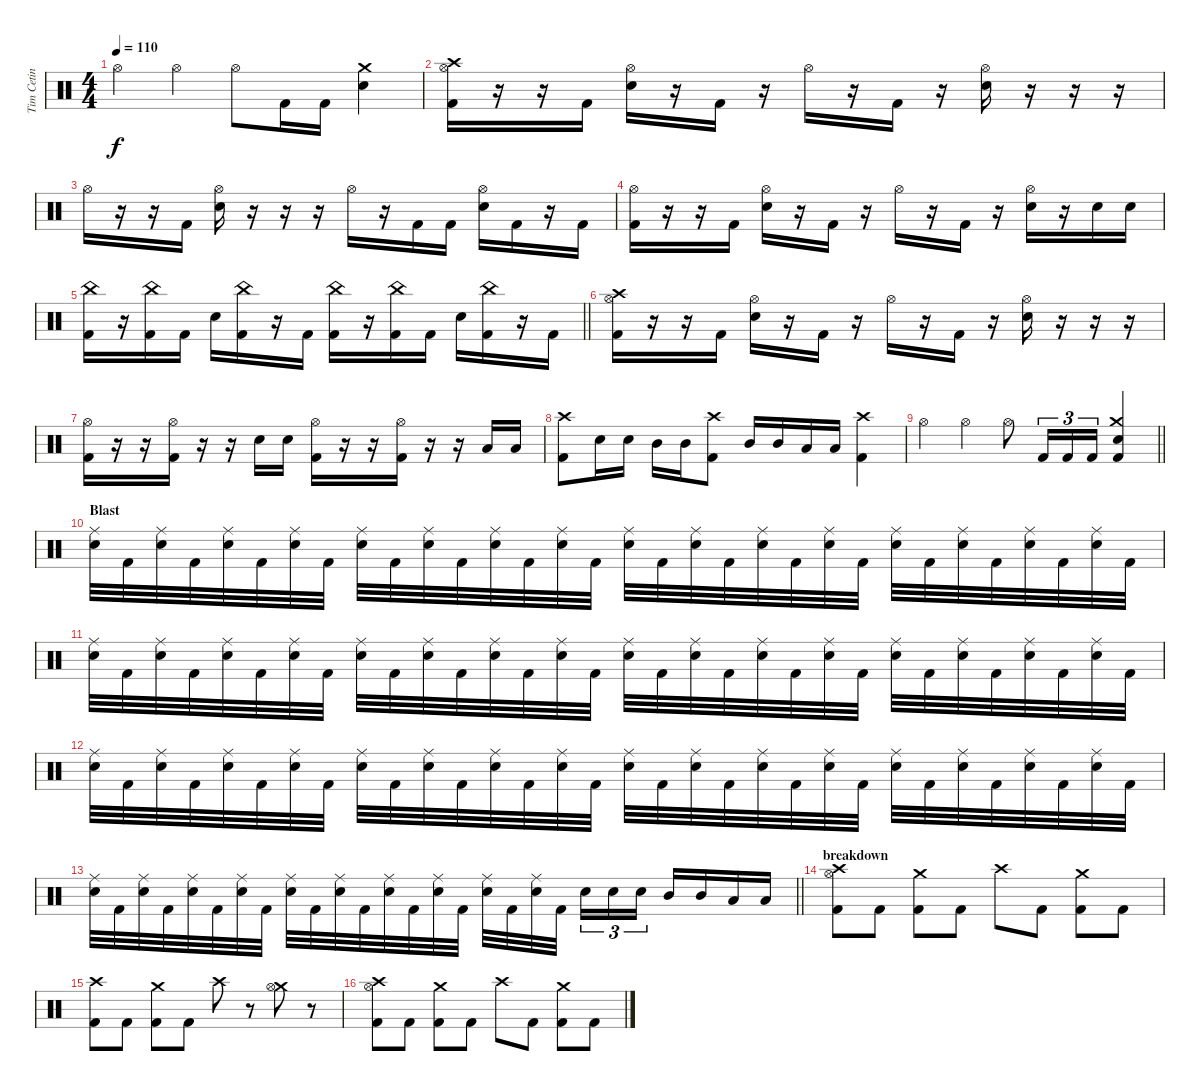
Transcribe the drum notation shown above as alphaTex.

\track ("Tim Cetin" "Tim Cetin") {instrument percussion}
\staff {score}
\articulation defaults
\ts (4 4)
\tempo 110
\clef neutral
\ks c "Hi-Hat (open)".4{dy f} "Hi-Hat (open)".4 "Hi-Hat (open)".8 "Kick (hit) 2".16 "Kick (hit) 2".16
("Crash medium (hit)" "Snare (hit) 2").4 |
("Crash high (hit)" "Hi-Hat (open)" "Kick (hit) 2").16 r.16 r.16 "Kick (hit) 2".16 ("Hi-Hat (open)" "Snare (hit) 2").16 r.16 "Kick (hit) 2".16 r.16 "Hi-Hat (open)".16 r.16 "Kick (hit) 2".16 r.16 ("Hi-Hat (open)" "Snare (hit) 2").16 r.16 r.16 r.16 |
"Hi-Hat (open)".16 r.16 r.16 "Kick (hit) 2".16 ("Hi-Hat (open)" "Snare (hit) 2").16 r.16 r.16 r.16 "Hi-Hat (open)".16 r.16 "Kick (hit) 2".16 "Kick (hit) 2".16 ("Hi-Hat (open)" "Snare (hit) 2").16 "Kick (hit) 2".16 r.16 "Kick (hit) 2".16 |
("Hi-Hat (open)" "Kick (hit) 2").16 r.16 r.16 "Kick (hit) 2".16 ("Hi-Hat (open)" "Snare (hit) 2").16 r.16 "Kick (hit) 2".16 r.16 "Hi-Hat (open)".16 r.16 "Kick (hit) 2".16 r.16 ("Hi-Hat (open)" "Snare (hit) 2").16 r.16 "Snare (hit) 2".16 "Snare (hit) 2".16 |
\barLineRight lightlight
("China (hit)" "Kick (hit) 2").16 r.16 ("China (hit)" "Kick (hit) 2").16 "Kick (hit) 2".16 "Snare (hit) 2".16 ("China (hit)" "Kick (hit) 2").16 r.16 "Kick (hit) 2".16 ("China (hit)" "Kick (hit) 2").16 r.16 ("China (hit)" "Kick (hit) 2").16 "Kick (hit) 2".16 "Snare (hit) 2".16 ("China (hit)" "Kick (hit) 2").16 r.16 "Kick (hit) 2".16 |
("Crash high (hit)" "Hi-Hat (open)" "Kick (hit) 2").16 r.16 r.16 "Kick (hit) 2".16 ("Hi-Hat (open)" "Snare (hit) 2").16 r.16 "Kick (hit) 2".16 r.16 "Hi-Hat (open)".16 r.16 "Kick (hit) 2".16 r.16 ("Hi-Hat (open)" "Snare (hit) 2").16 r.16 r.16 r.16 |
("Hi-Hat (open)" "Kick (hit) 2").16 r.16 r.16 ("Hi-Hat (open)" "Kick (hit) 2").16 r.16 r.16 "Snare (hit) 2".16 "Snare (hit) 2".16 ("Hi-Hat (open)" "Kick (hit) 2").16 r.16 r.16 ("Hi-Hat (open)" "Kick (hit) 2").16 r.16 r.16 "Low Tom (hit)".16 "Low Tom (hit)".16 |
("Crash high (hit)" "Kick (hit) 2").8 "Snare (hit) 2".16 "Snare (hit) 2".16 "Mid Tom (hit)".16 "Mid Tom (hit)".16 ("Crash high (hit)" "Kick (hit) 2").8 "Mid Tom (hit)".16 "Mid Tom (hit)".16 "Low Tom (hit)".16 "Low Tom (hit)".16 ("Crash high (hit)" "Kick (hit) 2").4 |
\barLineRight lightlight "Hi-Hat (open)".4 "Hi-Hat (open)".4 "Hi-Hat (open)".8 "Kick (hit) 2".16{tu (3 2)} "Kick (hit) 2".16{tu (3 2)} "Kick (hit) 2".16{tu (3 2)}
("Crash medium (hit)" "Snare (hit) 2" "Kick (hit) 2").4 |
\section ("" "Blast")
("Ride (middle)" "Snare (hit) 2").32 "Kick (hit) 2".32 ("Ride (middle)" "Snare (hit) 2").32 "Kick (hit) 2".32 ("Ride (middle)" "Snare (hit) 2").32 "Kick (hit) 2".32 ("Ride (middle)" "Snare (hit) 2").32 "Kick (hit) 2".32 ("Ride (middle)" "Snare (hit) 2").32 "Kick (hit) 2".32 ("Ride (middle)" "Snare (hit) 2").32 "Kick (hit) 2".32 ("Ride (middle)" "Snare (hit) 2").32 "Kick (hit) 2".32 ("Ride (middle)" "Snare (hit) 2").32 "Kick (hit) 2".32 ("Ride (middle)" "Snare (hit) 2").32 "Kick (hit) 2".32 ("Ride (middle)" "Snare (hit) 2").32 "Kick (hit) 2".32 ("Ride (middle)" "Snare (hit) 2").32 "Kick (hit) 2".32 ("Ride (middle)" "Snare (hit) 2").32 "Kick (hit) 2".32 ("Ride (middle)" "Snare (hit) 2").32 "Kick (hit) 2".32 ("Ride (middle)" "Snare (hit) 2").32 "Kick (hit) 2".32 ("Ride (middle)" "Snare (hit) 2").32 "Kick (hit) 2".32 ("Ride (middle)" "Snare (hit) 2").32 "Kick (hit) 2".32 |
("Ride (middle)" "Snare (hit) 2").32 "Kick (hit) 2".32 ("Ride (middle)" "Snare (hit) 2").32 "Kick (hit) 2".32 ("Ride (middle)" "Snare (hit) 2").32 "Kick (hit) 2".32 ("Ride (middle)" "Snare (hit) 2").32 "Kick (hit) 2".32 ("Ride (middle)" "Snare (hit) 2").32 "Kick (hit) 2".32 ("Ride (middle)" "Snare (hit) 2").32 "Kick (hit) 2".32 ("Ride (middle)" "Snare (hit) 2").32 "Kick (hit) 2".32 ("Ride (middle)" "Snare (hit) 2").32 "Kick (hit) 2".32 ("Ride (middle)" "Snare (hit) 2").32 "Kick (hit) 2".32 ("Ride (middle)" "Snare (hit) 2").32 "Kick (hit) 2".32 ("Ride (middle)" "Snare (hit) 2").32 "Kick (hit) 2".32 ("Ride (middle)" "Snare (hit) 2").32 "Kick (hit) 2".32 ("Ride (middle)" "Snare (hit) 2").32 "Kick (hit) 2".32 ("Ride (middle)" "Snare (hit) 2").32 "Kick (hit) 2".32 ("Ride (middle)" "Snare (hit) 2").32 "Kick (hit) 2".32 ("Ride (middle)" "Snare (hit) 2").32 "Kick (hit) 2".32 |
("Ride (middle)" "Snare (hit) 2").32 "Kick (hit) 2".32 ("Ride (middle)" "Snare (hit) 2").32 "Kick (hit) 2".32 ("Ride (middle)" "Snare (hit) 2").32 "Kick (hit) 2".32 ("Ride (middle)" "Snare (hit) 2").32 "Kick (hit) 2".32 ("Ride (middle)" "Snare (hit) 2").32 "Kick (hit) 2".32 ("Ride (middle)" "Snare (hit) 2").32 "Kick (hit) 2".32 ("Ride (middle)" "Snare (hit) 2").32 "Kick (hit) 2".32 ("Ride (middle)" "Snare (hit) 2").32 "Kick (hit) 2".32 ("Ride (middle)" "Snare (hit) 2").32 "Kick (hit) 2".32 ("Ride (middle)" "Snare (hit) 2").32 "Kick (hit) 2".32 ("Ride (middle)" "Snare (hit) 2").32 "Kick (hit) 2".32 ("Ride (middle)" "Snare (hit) 2").32 "Kick (hit) 2".32 ("Ride (middle)" "Snare (hit) 2").32 "Kick (hit) 2".32 ("Ride (middle)" "Snare (hit) 2").32 "Kick (hit) 2".32 ("Ride (middle)" "Snare (hit) 2").32 "Kick (hit) 2".32 ("Ride (middle)" "Snare (hit) 2").32 "Kick (hit) 2".32 |
\barLineRight lightlight
("Ride (middle)" "Snare (hit) 2").32 "Kick (hit) 2".32 ("Ride (middle)" "Snare (hit) 2").32 "Kick (hit) 2".32 ("Ride (middle)" "Snare (hit) 2").32 "Kick (hit) 2".32 ("Ride (middle)" "Snare (hit) 2").32 "Kick (hit) 2".32 ("Ride (middle)" "Snare (hit) 2").32 "Kick (hit) 2".32 ("Ride (middle)" "Snare (hit) 2").32 "Kick (hit) 2".32 ("Ride (middle)" "Snare (hit) 2").32 "Kick (hit) 2".32 ("Ride (middle)" "Snare (hit) 2").32 "Kick (hit) 2".32 ("Ride (middle)" "Snare (hit) 2").32 "Kick (hit) 2".32 ("Ride (middle)" "Snare (hit) 2").32 "Kick (hit) 2".32{beam splitsecondary} "Snare (hit) 2".16{tu (3 2)} "Snare (hit) 2".16{tu (3 2)} "Snare (hit) 2".16{tu (3 2)} "Mid Tom (hit)".16 "Mid Tom (hit)".16 "Low Tom (hit)".16 "Low Tom (hit)".16 |
\section ("" "breakdown")
("Hi-Hat (open)" "Crash high (hit)" "Kick (hit) 2").8 "Kick (hit) 2".8 ("Crash medium (hit)" "Kick (hit) 2").8 "Kick (hit) 2".8 "Crash high (hit)".8 "Kick (hit) 2".8 ("Crash medium (hit)" "Kick (hit) 2").8 "Kick (hit) 2".8 |
("Crash high (hit)" "Kick (hit) 2").8 "Kick (hit) 2".8 ("Crash medium (hit)" "Kick (hit) 2").8 "Kick (hit) 2".8 "Crash high (hit)".8 r.8 ("Crash medium (hit)" "Hi-Hat (open)").8 r.8 |
("Hi-Hat (open)" "Crash high (hit)" "Kick (hit) 2").8 "Kick (hit) 2".8 ("Crash medium (hit)" "Kick (hit) 2").8 "Kick (hit) 2".8 "Crash high (hit)".8 "Kick (hit) 2".8 ("Crash medium (hit)" "Kick (hit) 2").8 "Kick (hit) 2".8
